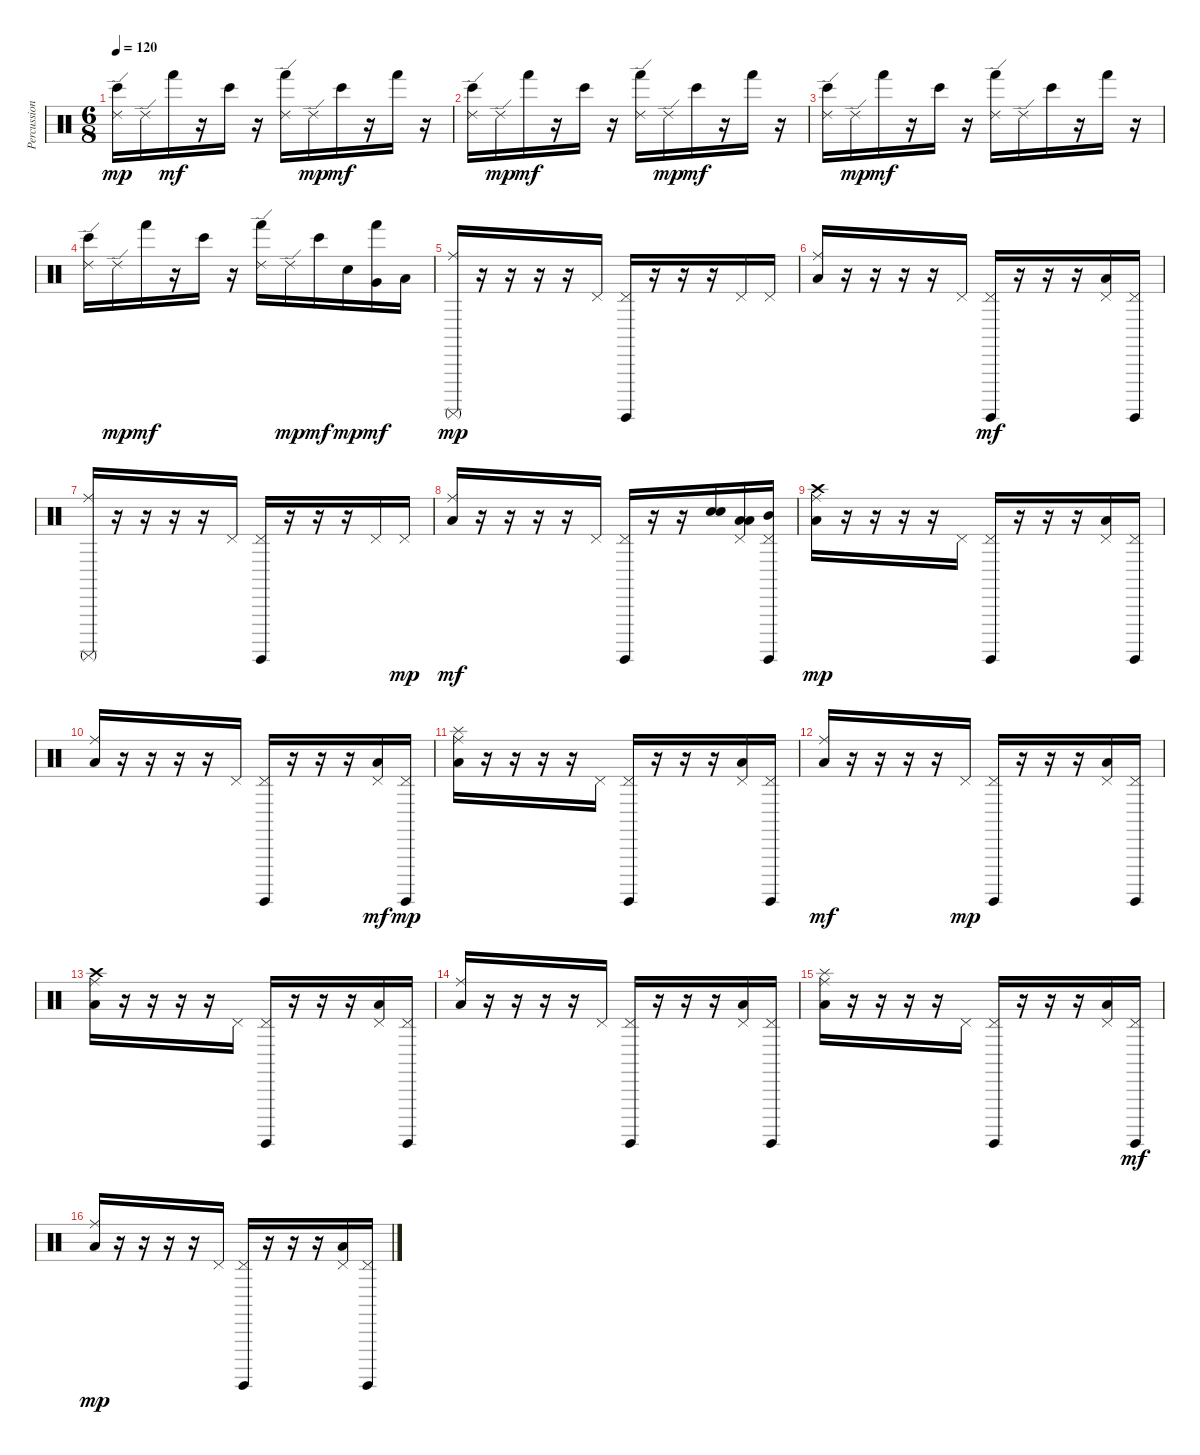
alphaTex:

\track ("Percussions" "Percussion") {instrument percussion}
\staff {score}
\articulation defaults
\ts (6 8)
\tempo 120
\clef neutral
\ks c
("Ride (edge) 2" "Bongo High (hit)").16{dy mp} "Ride (edge) 2".16 "Hand (hit)".16{dy mf} r.16 "Bongo High (hit)".16 r.16 ("Ride (edge) 2" "Hand (hit)").16 "Ride (edge) 2".16{dy mp} "Bongo High (hit)".16{dy mf} r.16 "Hand (hit)".16 r.16 |
("Ride (edge) 2" "Bongo High (hit)").16 "Ride (edge) 2".16{dy mp} "Hand (hit)".16{dy mf} r.16 "Bongo High (hit)".16 r.16 ("Ride (edge) 2" "Hand (hit)").16 "Ride (edge) 2".16{dy mp} "Bongo High (hit)".16{dy mf} r.16 "Hand (hit)".16 r.16 |
("Ride (edge) 2" "Bongo High (hit)").16 "Ride (edge) 2".16{dy mp} "Hand (hit)".16{dy mf} r.16 "Bongo High (hit)".16 r.16 ("Ride (edge) 2" "Hand (hit)").16 "Ride (edge) 2".16 "Bongo High (hit)".16 r.16 "Hand (hit)".16 r.16 |
("Ride (edge) 2" "Bongo High (hit)").16 "Ride (edge) 2".16{dy mp} "Hand (hit)".16{dy mf} r.16 "Bongo High (hit)".16 r.16 ("Ride (edge) 2" "Hand (hit)").16 "Ride (edge) 2".16{dy mp} "Bongo High (hit)".16{dy mf} "Electric Snare (hit)".16{dy mp} ("Very Low Tom (hit)" "Hand (hit)").16{dy mf} "Low Tom (hit)".16 |
("Surdo (mute)" "Ride (middle)").16{dy mp} r.16 r.16 r.16 r.16 "Pedal Hi-Hat (hit)".16 ("Surdo (hit)" "Pedal Hi-Hat (hit)").16 r.16 r.16 r.16 "Pedal Hi-Hat (hit)".16 "Pedal Hi-Hat (hit)".16 |
("Low Tom (hit)" "Ride (middle)").16 r.16 r.16 r.16 r.16 "Pedal Hi-Hat (hit)".16 ("Surdo (hit)" "Pedal Hi-Hat (hit)").16{dy mf} r.16 r.16 r.16 ("Low Tom (hit)" "Pedal Hi-Hat (hit)").16 ("Surdo (hit)" "Pedal Hi-Hat (hit)").16 |
("Surdo (mute)" "Ride (middle)").16 r.16 r.16 r.16 r.16 "Pedal Hi-Hat (hit)".16 ("Surdo (hit)" "Pedal Hi-Hat (hit)").16 r.16 r.16 r.16 "Pedal Hi-Hat (hit)".16 "Pedal Hi-Hat (hit)".16{dy mp} |
("Low Tom (hit)" "Ride (middle)").16{dy mf} r.16 r.16 r.16 r.16 "Pedal Hi-Hat (hit)".16 ("Surdo (hit)" "Pedal Hi-Hat (hit)").16 r.16 r.16 ("Electric Snare (hit)" "Electric Snare (hit)").16 ("Low Tom (hit)" "Pedal Hi-Hat (hit)" "Low Floor Tom (hit)").16 ("Surdo (hit)" "Pedal Hi-Hat (hit)" "Mid Tom (hit)").16 |
("Low Tom (hit)" "Ride (middle)" "Crash high (hit)").16{dy mp} r.16 r.16 r.16 r.16 "Pedal Hi-Hat (hit)".16 ("Surdo (hit)" "Pedal Hi-Hat (hit)").16 r.16 r.16 r.16 ("Low Tom (hit)" "Pedal Hi-Hat (hit)").16 ("Surdo (hit)" "Pedal Hi-Hat (hit)").16 |
("Low Tom (hit)" "Ride (middle)").16 r.16 r.16 r.16 r.16 "Pedal Hi-Hat (hit)".16 ("Surdo (hit)" "Pedal Hi-Hat (hit)").16 r.16 r.16 r.16 ("Low Tom (hit)" "Pedal Hi-Hat (hit)").16{dy mf} ("Surdo (hit)" "Pedal Hi-Hat (hit)").16{dy mp} |
("Low Tom (hit)" "Ride (middle)" "Splash (hit)").16 r.16 r.16 r.16 r.16 "Pedal Hi-Hat (hit)".16 ("Surdo (hit)" "Pedal Hi-Hat (hit)").16 r.16 r.16 r.16 ("Low Tom (hit)" "Pedal Hi-Hat (hit)").16 ("Surdo (hit)" "Pedal Hi-Hat (hit)").16 |
("Low Tom (hit)" "Ride (middle)").16{dy mf} r.16 r.16 r.16 r.16 "Pedal Hi-Hat (hit)".16{dy mp} ("Surdo (hit)" "Pedal Hi-Hat (hit)").16 r.16 r.16 r.16 ("Low Tom (hit)" "Pedal Hi-Hat (hit)").16 ("Surdo (hit)" "Pedal Hi-Hat (hit)").16 |
("Low Tom (hit)" "Ride (middle)" "Crash high (hit)").16 r.16 r.16 r.16 r.16 "Pedal Hi-Hat (hit)".16 ("Surdo (hit)" "Pedal Hi-Hat (hit)").16 r.16 r.16 r.16 ("Low Tom (hit)" "Pedal Hi-Hat (hit)").16 ("Surdo (hit)" "Pedal Hi-Hat (hit)").16 |
("Low Tom (hit)" "Ride (middle)").16 r.16 r.16 r.16 r.16 "Pedal Hi-Hat (hit)".16 ("Surdo (hit)" "Pedal Hi-Hat (hit)").16 r.16 r.16 r.16 ("Low Tom (hit)" "Pedal Hi-Hat (hit)").16 ("Surdo (hit)" "Pedal Hi-Hat (hit)").16 |
("Low Tom (hit)" "Ride (middle)" "Splash (hit)").16 r.16 r.16 r.16 r.16 "Pedal Hi-Hat (hit)".16 ("Surdo (hit)" "Pedal Hi-Hat (hit)").16 r.16 r.16 r.16 ("Low Tom (hit)" "Pedal Hi-Hat (hit)").16 ("Surdo (hit)" "Pedal Hi-Hat (hit)").16{dy mf} |
("Low Tom (hit)" "Ride (middle)").16{dy mp} r.16 r.16 r.16 r.16 "Pedal Hi-Hat (hit)".16 ("Surdo (hit)" "Pedal Hi-Hat (hit)").16 r.16 r.16 r.16 ("Low Tom (hit)" "Pedal Hi-Hat (hit)").16 ("Surdo (hit)" "Pedal Hi-Hat (hit)").16
